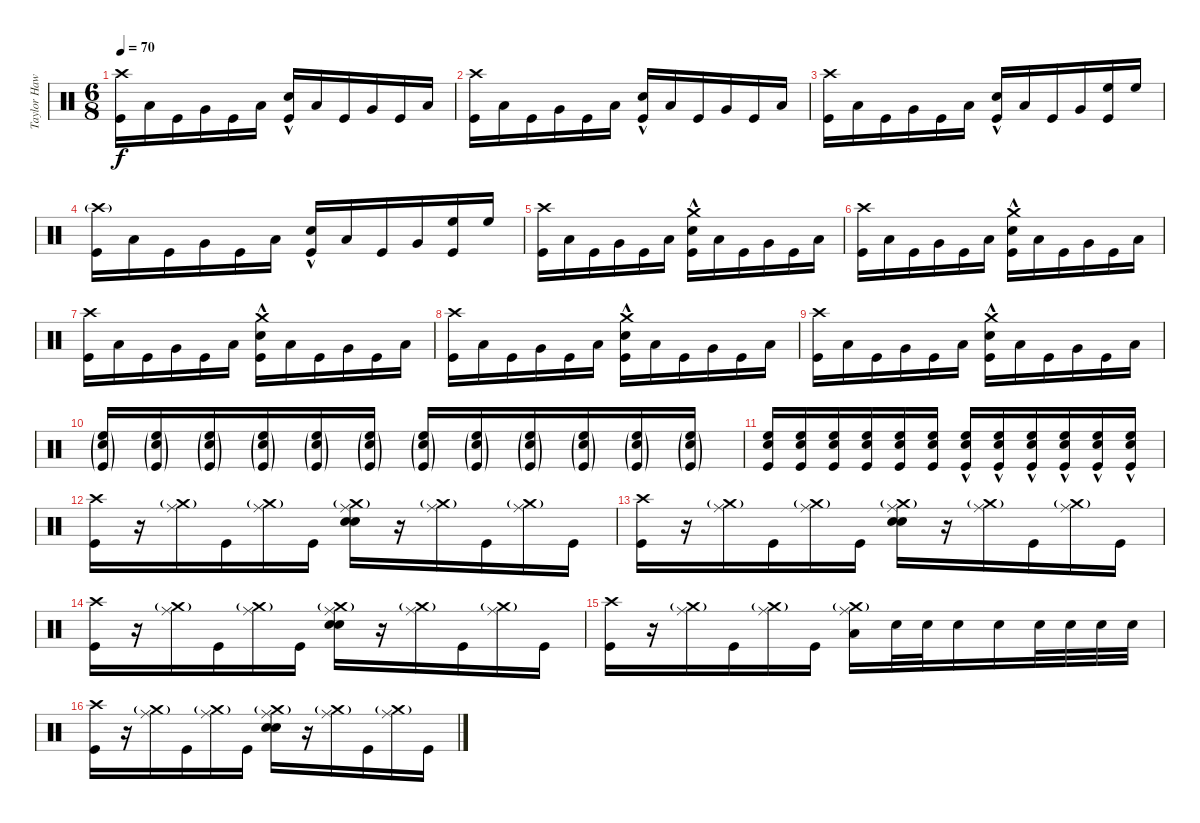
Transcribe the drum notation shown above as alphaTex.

\track ("Taylor Hawkins - Drums" "Taylor Haw") {instrument percussion}
\staff {score}
\articulation defaults
\ts (6 8)
\tempo 70
\clef neutral
\ks c
("Crash high (hit)" "Kick (hit)").16{dy f} "Low Tom (hit)".16 "Kick (hit)".16 "Very Low Tom (hit)".16 "Kick (hit)".16 "Low Floor Tom (hit)".16 ("Electric Snare (hit)"{hac} "Kick (hit)").16 "Low Tom (hit)".16 "Kick (hit)".16 "Very Low Tom (hit)".16 "Kick (hit)".16 "Low Floor Tom (hit)".16 |
("Crash high (hit)" "Kick (hit)").16 "Low Tom (hit)".16 "Kick (hit)".16 "Very Low Tom (hit)".16 "Kick (hit)".16 "Low Floor Tom (hit)".16 ("Electric Snare (hit)"{hac} "Kick (hit)").16 "Low Tom (hit)".16 "Kick (hit)".16 "Very Low Tom (hit)".16 "Kick (hit)".16 "Low Floor Tom (hit)".16 |
("Crash high (hit)" "Kick (hit)").16 "Low Tom (hit)".16 "Kick (hit)".16 "Very Low Tom (hit)".16 "Kick (hit)".16 "Low Floor Tom (hit)".16 ("Electric Snare (hit)"{hac} "Kick (hit)").16 "Low Tom (hit)".16 "Kick (hit)".16 "Very Low Tom (hit)".16 ("High Floor Tom (hit)" "Kick (hit)").16 "High Floor Tom (hit)".16 |
("Crash high (hit)"{g} "Kick (hit)").16 "Low Tom (hit)".16 "Kick (hit)".16 "Very Low Tom (hit)".16 "Kick (hit)".16 "Low Floor Tom (hit)".16 ("Electric Snare (hit)"{hac} "Kick (hit)").16 "Low Tom (hit)".16 "Kick (hit)".16 "Very Low Tom (hit)".16 ("High Floor Tom (hit)" "Kick (hit)").16 "High Floor Tom (hit)".16 |
("Crash high (hit)" "Kick (hit)").16 "Low Tom (hit)".16 "Kick (hit)".16 "Very Low Tom (hit)".16 "Kick (hit)".16 "Low Floor Tom (hit)".16 ("Crash medium (hit)" "Electric Snare (hit)"{hac} "Kick (hit)").16 "Low Tom (hit)".16 "Kick (hit)".16 "Very Low Tom (hit)".16 "Kick (hit)".16 "Low Floor Tom (hit)".16 |
("Crash high (hit)" "Kick (hit)").16 "Low Tom (hit)".16 "Kick (hit)".16 "Very Low Tom (hit)".16 "Kick (hit)".16 "Low Floor Tom (hit)".16 ("Crash medium (hit)" "Electric Snare (hit)"{hac} "Kick (hit)").16 "Low Tom (hit)".16 "Kick (hit)".16 "Very Low Tom (hit)".16 "Kick (hit)".16 "Low Floor Tom (hit)".16 |
("Crash high (hit)" "Kick (hit)").16 "Low Tom (hit)".16 "Kick (hit)".16 "Very Low Tom (hit)".16 "Kick (hit)".16 "Low Floor Tom (hit)".16 ("Crash medium (hit)" "Electric Snare (hit)"{hac} "Kick (hit)").16 "Low Tom (hit)".16 "Kick (hit)".16 "Very Low Tom (hit)".16 "Kick (hit)".16 "Low Floor Tom (hit)".16 |
("Crash high (hit)" "Kick (hit)").16 "Low Tom (hit)".16 "Kick (hit)".16 "Very Low Tom (hit)".16 "Kick (hit)".16 "Low Floor Tom (hit)".16 ("Crash medium (hit)" "Electric Snare (hit)"{hac} "Kick (hit)").16 "Low Tom (hit)".16 "Kick (hit)".16 "Very Low Tom (hit)".16 "Kick (hit)".16 "Low Floor Tom (hit)".16 |
("Crash high (hit)" "Kick (hit)").16 "Low Tom (hit)".16 "Kick (hit)".16 "Very Low Tom (hit)".16 "Kick (hit)".16 "Low Floor Tom (hit)".16 ("Crash medium (hit)" "Electric Snare (hit)"{hac} "Kick (hit)").16 "Low Tom (hit)".16 "Kick (hit)".16 "Very Low Tom (hit)".16 "Kick (hit)".16 "Low Floor Tom (hit)".16 |
("High Floor Tom (hit)"{g} "Electric Snare (hit)"{g} "Kick (hit)"{g}).16 ("High Floor Tom (hit)"{g} "Electric Snare (hit)"{g} "Kick (hit)"{g}).16 ("High Floor Tom (hit)"{g} "Electric Snare (hit)"{g} "Kick (hit)"{g}).16 ("High Floor Tom (hit)"{g} "Electric Snare (hit)"{g} "Kick (hit)"{g}).16 ("High Floor Tom (hit)"{g} "Electric Snare (hit)"{g} "Kick (hit)"{g}).16 ("High Floor Tom (hit)"{g} "Electric Snare (hit)"{g} "Kick (hit)"{g}).16 ("High Floor Tom (hit)"{g} "Electric Snare (hit)"{g} "Kick (hit)"{g}).16 ("High Floor Tom (hit)"{g} "Electric Snare (hit)"{g} "Kick (hit)"{g}).16 ("High Floor Tom (hit)"{g} "Electric Snare (hit)"{g} "Kick (hit)"{g}).16 ("High Floor Tom (hit)"{g} "Electric Snare (hit)"{g} "Kick (hit)"{g}).16 ("High Floor Tom (hit)"{g} "Electric Snare (hit)"{g} "Kick (hit)"{g}).16 ("High Floor Tom (hit)"{g} "Electric Snare (hit)"{g} "Kick (hit)"{g}).16 |
("High Floor Tom (hit)" "Electric Snare (hit)" "Kick (hit)").16 ("High Floor Tom (hit)" "Electric Snare (hit)" "Kick (hit)").16 ("High Floor Tom (hit)" "Electric Snare (hit)" "Kick (hit)").16 ("High Floor Tom (hit)" "Electric Snare (hit)" "Kick (hit)").16 ("High Floor Tom (hit)" "Electric Snare (hit)" "Kick (hit)").16 ("High Floor Tom (hit)" "Electric Snare (hit)" "Kick (hit)").16 ("High Floor Tom (hit)"{hac} "Electric Snare (hit)"{hac} "Kick (hit)"{hac}).16 ("High Floor Tom (hit)"{hac} "Electric Snare (hit)"{hac} "Kick (hit)"{hac}).16 ("High Floor Tom (hit)"{hac} "Electric Snare (hit)"{hac} "Kick (hit)"{hac}).16 ("High Floor Tom (hit)"{hac} "Electric Snare (hit)"{hac} "Kick (hit)"{hac}).16 ("High Floor Tom (hit)"{hac} "Electric Snare (hit)"{hac} "Kick (hit)"{hac}).16 ("High Floor Tom (hit)"{hac} "Electric Snare (hit)"{hac} "Kick (hit)"{hac}).16 |
("Crash high (hit)" "Kick (hit)").16 r.16 ("Crash medium (hit)"{g} "Ride (middle)").16 "Kick (hit)".16 ("Crash medium (hit)"{g} "Ride (middle)").16 "Kick (hit)".16 ("Crash medium (hit)"{g} "Ride (middle)" "Electric Snare (hit)" "Snare (hit) 2").16 r.16 ("Crash medium (hit)"{g} "Ride (middle)").16 "Kick (hit)".16 ("Crash medium (hit)"{g} "Ride (middle)").16 "Kick (hit)".16 |
("Crash high (hit)" "Kick (hit)").16 r.16 ("Crash medium (hit)"{g} "Ride (middle)").16 "Kick (hit)".16 ("Crash medium (hit)"{g} "Ride (middle)").16 "Kick (hit)".16 ("Crash medium (hit)"{g} "Ride (middle)" "Electric Snare (hit)" "Snare (hit) 2").16 r.16 ("Crash medium (hit)"{g} "Ride (middle)").16 "Kick (hit)".16 ("Crash medium (hit)"{g} "Ride (middle)").16 "Kick (hit)".16 |
("Crash high (hit)" "Kick (hit)").16 r.16 ("Crash medium (hit)"{g} "Ride (middle)").16 "Kick (hit)".16 ("Crash medium (hit)"{g} "Ride (middle)").16 "Kick (hit)".16 ("Crash medium (hit)"{g} "Ride (middle)" "Electric Snare (hit)" "Snare (hit) 2").16 r.16 ("Crash medium (hit)"{g} "Ride (middle)").16 "Kick (hit)".16 ("Crash medium (hit)"{g} "Ride (middle)").16 "Kick (hit)".16 |
("Crash high (hit)" "Kick (hit)").16 r.16 ("Crash medium (hit)"{g} "Ride (middle)").16 "Kick (hit)".16 ("Crash medium (hit)"{g} "Ride (middle)").16 "Kick (hit)".16 ("Crash medium (hit)"{g} "Ride (middle)" "Low Tom (hit)").16 "Electric Snare (hit)".32 "Electric Snare (hit)".32 "Electric Snare (hit)".16 "Electric Snare (hit)".16 "Electric Snare (hit)".32 "Electric Snare (hit)".32 "Electric Snare (hit)".32 "Electric Snare (hit)".32 |
("Crash high (hit)" "Kick (hit)").16 r.16 ("Crash medium (hit)"{g} "Ride (middle)").16 "Kick (hit)".16 ("Crash medium (hit)"{g} "Ride (middle)").16 "Kick (hit)".16 ("Crash medium (hit)"{g} "Ride (middle)" "Electric Snare (hit)" "Snare (hit) 2").16 r.16 ("Crash medium (hit)"{g} "Ride (middle)").16 "Kick (hit)".16 ("Crash medium (hit)"{g} "Ride (middle)").16 "Kick (hit)".16
